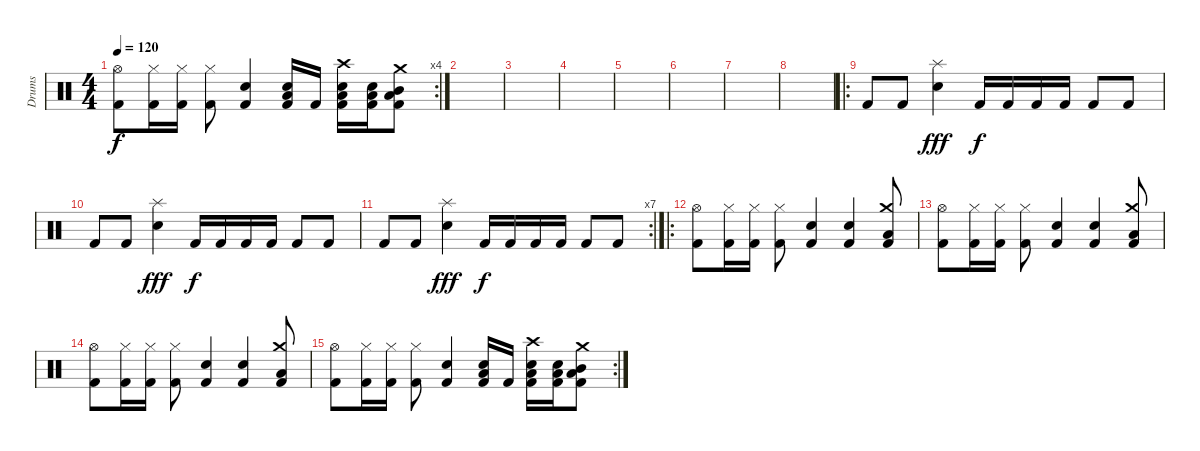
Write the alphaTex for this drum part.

\track ("Drums" "Drums") {instrument percussion}
\staff {score}
\articulation defaults
\rc 4
\ts (4 4)
\tempo 120
\clef neutral
\ks c
("Hi-Hat (open)" "Kick (hit) 2").8{dy f} ("Hi-Hat (closed)" "Kick (hit) 2").16 ("Hi-Hat (closed)" "Kick (hit) 2").16 ("Hi-Hat (closed)" "Kick (hit) 2").8 ("Electric Snare (hit)" "Kick (hit) 2").4 ("Electric Snare (hit)" "Low Tom (hit)" "Kick (hit) 2").16 "Kick (hit) 2".16 ("Crash high (hit)" "Electric Snare (hit)" "Low Tom (hit)" "Kick (hit) 2").16 ("Electric Snare (hit)" "Low Tom (hit)" "Kick (hit) 2").16 ("Crash medium (hit)" "Low Floor Tom (hit)" "Mid Tom (hit)" "Kick (hit) 2").8 |
|
|
|
|
|
|
|
\ro "Kick (hit) 2".8 "Kick (hit) 2".8
("Splash (hit)" "Electric Snare (hit)").4{dy fff} "Kick (hit) 2".16{dy f} "Kick (hit) 2".16 "Kick (hit) 2".16 "Kick (hit) 2".16 "Kick (hit) 2".8 "Kick (hit) 2".8 |
"Kick (hit) 2".8 "Kick (hit) 2".8 ("Splash (hit)" "Electric Snare (hit)").4{dy fff} "Kick (hit) 2".16{dy f} "Kick (hit) 2".16 "Kick (hit) 2".16 "Kick (hit) 2".16 "Kick (hit) 2".8 "Kick (hit) 2".8 |
\rc 7 "Kick (hit) 2".8 "Kick (hit) 2".8
("Splash (hit)" "Electric Snare (hit)").4{dy fff} "Kick (hit) 2".16{dy f} "Kick (hit) 2".16 "Kick (hit) 2".16 "Kick (hit) 2".16 "Kick (hit) 2".8 "Kick (hit) 2".8 |
\ro
("Hi-Hat (open)" "Kick (hit) 2").8 ("Hi-Hat (closed)" "Kick (hit) 2").16 ("Hi-Hat (closed)" "Kick (hit) 2").16 ("Hi-Hat (closed)" "Kick (hit) 2").8 ("Electric Snare (hit)" "Kick (hit) 2").4 ("Electric Snare (hit)" "Kick (hit) 2").4 ("Crash medium (hit)" "Low Floor Tom (hit)" "Kick (hit) 2").8 |
("Hi-Hat (open)" "Kick (hit) 2").8 ("Hi-Hat (closed)" "Kick (hit) 2").16 ("Hi-Hat (closed)" "Kick (hit) 2").16 ("Hi-Hat (closed)" "Kick (hit) 2").8 ("Electric Snare (hit)" "Kick (hit) 2").4 ("Electric Snare (hit)" "Kick (hit) 2").4 ("Crash medium (hit)" "Low Floor Tom (hit)" "Kick (hit) 2").8 |
("Hi-Hat (open)" "Kick (hit) 2").8 ("Hi-Hat (closed)" "Kick (hit) 2").16 ("Hi-Hat (closed)" "Kick (hit) 2").16 ("Hi-Hat (closed)" "Kick (hit) 2").8 ("Electric Snare (hit)" "Kick (hit) 2").4 ("Electric Snare (hit)" "Kick (hit) 2").4 ("Crash medium (hit)" "Low Floor Tom (hit)" "Kick (hit) 2").8 |
\rc 2
("Hi-Hat (open)" "Kick (hit) 2").8 ("Hi-Hat (closed)" "Kick (hit) 2").16 ("Hi-Hat (closed)" "Kick (hit) 2").16 ("Hi-Hat (closed)" "Kick (hit) 2").8 ("Electric Snare (hit)" "Kick (hit) 2").4 ("Electric Snare (hit)" "Low Tom (hit)" "Kick (hit) 2").16 "Kick (hit) 2".16 ("Crash high (hit)" "Electric Snare (hit)" "Low Tom (hit)" "Kick (hit) 2").16 ("Electric Snare (hit)" "Low Tom (hit)" "Kick (hit) 2").16 ("Crash medium (hit)" "Low Floor Tom (hit)" "Mid Tom (hit)" "Kick (hit) 2").8
